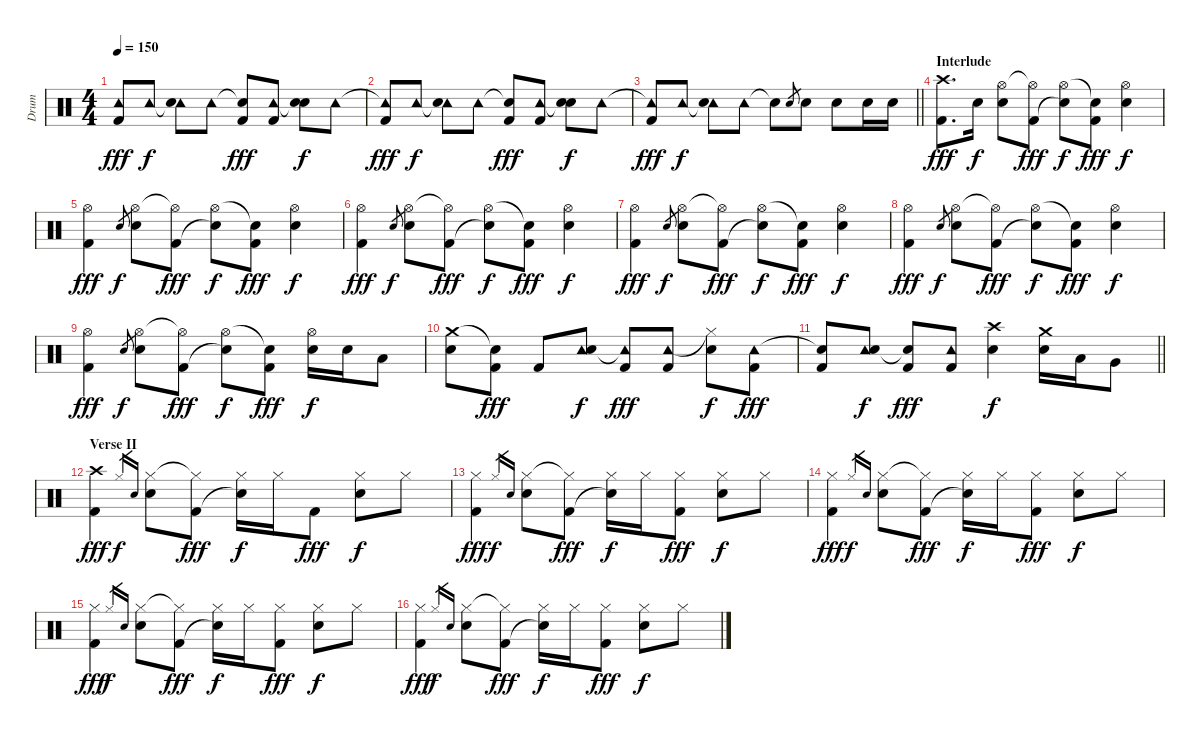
\track ("Drum" "Drum") {instrument percussion}
\staff {score}
\articulation defaults
\ts (4 4)
\tempo 150
\clef neutral
\ks c
("Tambourine (hit)"{t} "Kick (hit) 2").8{dy fff} "Tambourine (hit)".8{dy f} ("Tambourine (hit)"{t} "Snare (hit) 2").8 "Tambourine (hit)".8 ("Snare (hit)"{t} "Kick (hit) 2").8{dy fff} ("Tambourine (hit)" "Kick (hit) 2").8 ("Snare (hit)"{t} "Snare (hit) 2").8{dy f} "Tambourine (hit)".8 |
("Tambourine (hit)"{t} "Kick (hit) 2").8{dy fff} "Tambourine (hit)".8{dy f} ("Tambourine (hit)"{t} "Snare (hit) 2").8 "Tambourine (hit)".8 ("Snare (hit)"{t} "Kick (hit) 2").8{dy fff} ("Tambourine (hit)" "Kick (hit) 2").8 ("Snare (hit)"{t} "Snare (hit) 2").8{dy f} "Tambourine (hit)".8 |
\barLineRight lightlight
("Tambourine (hit)"{t} "Kick (hit) 2").8{dy fff} "Tambourine (hit)".8{dy f} ("Tambourine (hit)"{t} "Snare (hit) 2").8 "Tambourine (hit)".8 "Snare (hit)"{t}.8 "Snare (hit) 2".8{gr} "Snare (hit) 2".8 "Snare (hit) 2".8 "Snare (hit) 2".16 "Snare (hit) 2".16 |
\section ("" "Interlude")
("Crash high (hit)" "Kick (hit) 2").8{d dy fff} "Snare (hit) 2".16{dy f} ("Hi-Hat (open)" "Snare (hit) 2").8 ("Hi-Hat (open)"{t} "Kick (hit) 2").8{dy fff} ("Hi-Hat (open)" "Snare (hit)"{t}).8{dy f} ("Snare (hit)"{t} "Kick (hit) 2").8{dy fff} ("Hi-Hat (open)" "Snare (hit) 2").4{dy f} |
("Hi-Hat (open)" "Kick (hit) 2").4{dy fff} "Snare (hit) 2".8{gr dy f} ("Hi-Hat (open)" "Snare (hit) 2").8 ("Hi-Hat (open)"{t} "Kick (hit) 2").8{dy fff} ("Hi-Hat (open)" "Snare (hit)"{t}).8{dy f} ("Snare (hit)"{t} "Kick (hit) 2").8{dy fff} ("Hi-Hat (open)" "Snare (hit) 2").4{dy f} |
("Hi-Hat (open)" "Kick (hit) 2").4{dy fff} "Snare (hit) 2".8{gr dy f} ("Hi-Hat (open)" "Snare (hit) 2").8 ("Hi-Hat (open)"{t} "Kick (hit) 2").8{dy fff} ("Hi-Hat (open)" "Snare (hit)"{t}).8{dy f} ("Snare (hit)"{t} "Kick (hit) 2").8{dy fff} ("Hi-Hat (open)" "Snare (hit) 2").4{dy f} |
("Hi-Hat (open)" "Kick (hit) 2").4{dy fff} "Snare (hit) 2".8{gr dy f} ("Hi-Hat (open)" "Snare (hit) 2").8 ("Hi-Hat (open)"{t} "Kick (hit) 2").8{dy fff} ("Hi-Hat (open)" "Snare (hit)"{t}).8{dy f} ("Snare (hit)"{t} "Kick (hit) 2").8{dy fff} ("Hi-Hat (open)" "Snare (hit) 2").4{dy f} |
("Hi-Hat (open)" "Kick (hit) 2").4{dy fff} "Snare (hit) 2".8{gr dy f} ("Hi-Hat (open)" "Snare (hit) 2").8 ("Hi-Hat (open)"{t} "Kick (hit) 2").8{dy fff} ("Hi-Hat (open)" "Snare (hit)"{t}).8{dy f} ("Snare (hit)"{t} "Kick (hit) 2").8{dy fff} ("Hi-Hat (open)" "Snare (hit) 2").4{dy f} |
("Hi-Hat (open)" "Kick (hit) 2").4{dy fff} "Snare (hit) 2".8{gr dy f} ("Hi-Hat (open)" "Snare (hit) 2").8 ("Hi-Hat (open)"{t} "Kick (hit) 2").8{dy fff} ("Hi-Hat (open)" "Snare (hit)"{t}).8{dy f} ("Snare (hit)"{t} "Kick (hit) 2").8{dy fff} ("Hi-Hat (open)" "Snare (hit) 2").16{dy f} "Snare (hit) 2".16 "Low Tom (hit)".8 |
("Crash medium (hit)" "Snare (hit) 2").8 ("Snare (hit)"{t} "Kick (hit) 2").8{dy fff} "Kick (hit) 2".8 ("Tambourine (hit)" "Snare (hit) 2").8{dy f} ("Tambourine (hit)"{t} "Kick (hit) 2").8{dy fff} ("Tambourine (hit)" "Kick (hit) 2").8 ("Hi-Hat (closed)"{t} "Snare (hit) 2").8{dy f} ("Tambourine (hit)" "Kick (hit) 2").8{dy fff} |
\barLineRight lightlight
("Snare (hit)"{t} "Kick (hit) 2").8 ("Tambourine (hit)" "Snare (hit) 2").8{dy f} ("Snare (hit)"{t} "Kick (hit) 2").8{dy fff} ("Tambourine (hit)" "Kick (hit) 2").8 ("Crash high (hit)" "Snare (hit) 2").4{dy f} ("Crash medium (hit)" "Snare (hit) 2").16 "Low Tom (hit)".16 "Very Low Tom (hit)".8 |
\section ("" "Verse II")
("Crash high (hit)" "Kick (hit) 2").4{dy fff} "Hi-Hat (closed)".16{gr dy f} "Snare (hit) 2".16{gr} ("Hi-Hat (closed)" "Snare (hit) 2").8 ("Hi-Hat (closed)"{t} "Kick (hit) 2").8{dy fff} ("Hi-Hat (closed)" "Snare (hit)"{t}).16{dy f} "Hi-Hat (closed)".16 "Kick (hit) 2".8{dy fff} ("Hi-Hat (closed)" "Snare (hit) 2").8{dy f} "Hi-Hat (closed)".8 |
("Hi-Hat (closed)" "Kick (hit) 2").4{dy fff} "Hi-Hat (closed)".16{gr dy f} "Snare (hit) 2".16{gr} ("Hi-Hat (closed)" "Snare (hit) 2").8 ("Hi-Hat (closed)"{t} "Kick (hit) 2").8{dy fff} ("Hi-Hat (closed)" "Snare (hit)"{t}).16{dy f} "Hi-Hat (closed)".16 ("Hi-Hat (closed)" "Kick (hit) 2").8{dy fff} ("Hi-Hat (closed)" "Snare (hit) 2").8{dy f} "Hi-Hat (closed)".8 |
("Hi-Hat (closed)" "Kick (hit) 2").4{dy fff} "Hi-Hat (closed)".16{gr dy f} "Snare (hit) 2".16{gr} ("Hi-Hat (closed)" "Snare (hit) 2").8 ("Hi-Hat (closed)"{t} "Kick (hit) 2").8{dy fff} ("Hi-Hat (closed)" "Snare (hit)"{t}).16{dy f} "Hi-Hat (closed)".16 ("Hi-Hat (closed)" "Kick (hit) 2").8{dy fff} ("Hi-Hat (closed)" "Snare (hit) 2").8{dy f} "Hi-Hat (closed)".8 |
("Hi-Hat (closed)" "Kick (hit) 2").4{dy fff} "Hi-Hat (closed)".16{gr dy f} "Snare (hit) 2".16{gr} ("Hi-Hat (closed)" "Snare (hit) 2").8 ("Hi-Hat (closed)"{t} "Kick (hit) 2").8{dy fff} ("Hi-Hat (closed)" "Snare (hit)"{t}).16{dy f} "Hi-Hat (closed)".16 ("Hi-Hat (closed)" "Kick (hit) 2").8{dy fff} ("Hi-Hat (closed)" "Snare (hit) 2").8{dy f} "Hi-Hat (closed)".8 |
("Hi-Hat (closed)" "Kick (hit) 2").4{dy fff} "Hi-Hat (closed)".16{gr dy f} "Snare (hit) 2".16{gr} ("Hi-Hat (closed)" "Snare (hit) 2").8 ("Hi-Hat (closed)"{t} "Kick (hit) 2").8{dy fff} ("Hi-Hat (closed)" "Snare (hit)"{t}).16{dy f} "Hi-Hat (closed)".16 ("Hi-Hat (closed)" "Kick (hit) 2").8{dy fff} ("Hi-Hat (closed)" "Snare (hit) 2").8{dy f} "Hi-Hat (closed)".8
